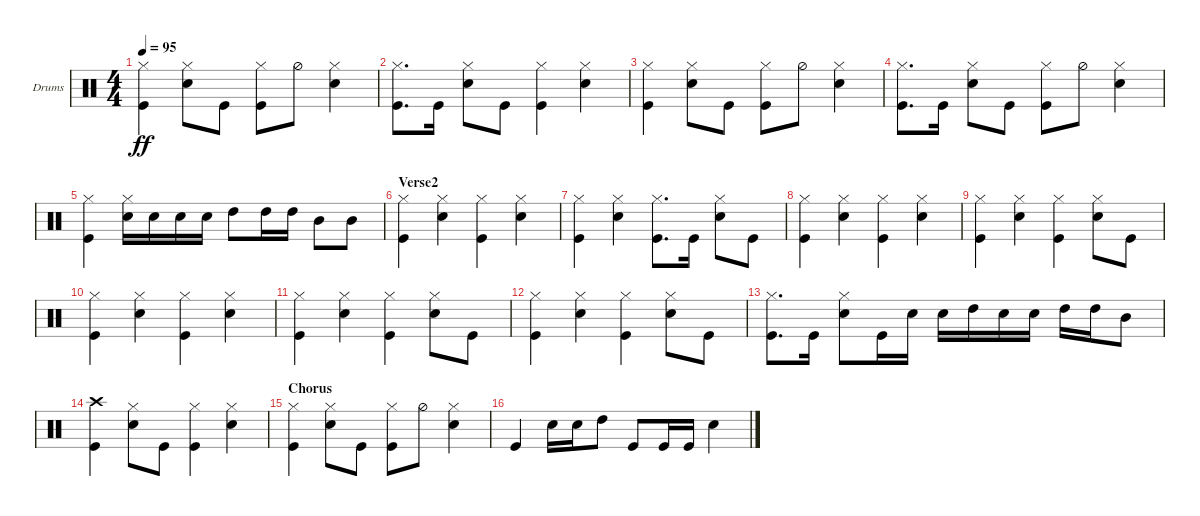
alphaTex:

\defaultSystemsLayout 4
\bracketExtendMode groupsimilarinstruments
\firstSystemTrackNameOrientation horizontal
\otherSystemsTrackNameOrientation horizontal
\track ("Drums" "Drums") {instrument percussion}
\staff {score}
\articulation defaults
\ts (4 4)
\tempo 95
\clef neutral
\ks c
("Hi-Hat (closed)" "Kick (hit)").4{dy ff} ("Hi-Hat (closed)" "Snare (hit) 2").8 "Kick (hit)".8 ("Kick (hit)" "Hi-Hat (closed)").8 "Hi-Hat (half)".8 ("Hi-Hat (closed)" "Snare (hit) 2").4 |
("Hi-Hat (closed)" "Kick (hit)").8{d} "Kick (hit)".16 ("Hi-Hat (closed)" "Snare (hit) 2").8 "Kick (hit)".8 ("Kick (hit)" "Hi-Hat (closed)").4 ("Hi-Hat (closed)" "Snare (hit) 2").4 |
("Hi-Hat (closed)" "Kick (hit)").4 ("Hi-Hat (closed)" "Snare (hit) 2").8 "Kick (hit)".8 ("Kick (hit)" "Hi-Hat (closed)").8 "Hi-Hat (half)".8 ("Hi-Hat (closed)" "Snare (hit) 2").4 |
("Hi-Hat (closed)" "Kick (hit)").8{d} "Kick (hit)".16 ("Hi-Hat (closed)" "Snare (hit) 2").8 "Kick (hit)".8 ("Kick (hit)" "Hi-Hat (closed)").8 "Hi-Hat (half)".8 ("Hi-Hat (closed)" "Snare (hit) 2").4 |
("Hi-Hat (closed)" "Kick (hit)").4 ("Hi-Hat (closed)" "Snare (hit) 2").16 "Snare (hit) 2".16 "Snare (hit) 2".16 "Snare (hit) 2".16 "High Tom (hit)".8 "High Tom (hit)".16 "High Tom (hit)".16 "Mid Tom (hit)".8 "Mid Tom (hit)".8 |
\section ("" "Verse2")
("Hi-Hat (closed)" "Kick (hit)").4 ("Hi-Hat (closed)" "Snare (hit) 2").4 ("Kick (hit)" "Hi-Hat (closed)").4 ("Hi-Hat (closed)" "Snare (hit) 2").4 |
("Hi-Hat (closed)" "Kick (hit)").4 ("Hi-Hat (closed)" "Snare (hit) 2").4 ("Kick (hit)" "Hi-Hat (closed)").8{d} "Kick (hit)".16 ("Hi-Hat (closed)" "Snare (hit) 2").8 "Kick (hit)".8 |
("Hi-Hat (closed)" "Kick (hit)").4 ("Hi-Hat (closed)" "Snare (hit) 2").4 ("Kick (hit)" "Hi-Hat (closed)").4 ("Hi-Hat (closed)" "Snare (hit) 2").4 |
("Hi-Hat (closed)" "Kick (hit)").4 ("Hi-Hat (closed)" "Snare (hit) 2").4 ("Kick (hit)" "Hi-Hat (closed)").4 ("Hi-Hat (closed)" "Snare (hit) 2").8 "Kick (hit)".8 |
("Hi-Hat (closed)" "Kick (hit)").4 ("Hi-Hat (closed)" "Snare (hit) 2").4 ("Kick (hit)" "Hi-Hat (closed)").4 ("Hi-Hat (closed)" "Snare (hit) 2").4 |
("Hi-Hat (closed)" "Kick (hit)").4 ("Hi-Hat (closed)" "Snare (hit) 2").4 ("Kick (hit)" "Hi-Hat (closed)").4 ("Hi-Hat (closed)" "Snare (hit) 2").8 "Kick (hit)".8 |
("Hi-Hat (closed)" "Kick (hit)").4 ("Hi-Hat (closed)" "Snare (hit) 2").4 ("Kick (hit)" "Hi-Hat (closed)").4 ("Hi-Hat (closed)" "Snare (hit) 2").8 "Kick (hit)".8 |
("Hi-Hat (closed)" "Kick (hit)").8{d} "Kick (hit)".16 ("Hi-Hat (closed)" "Snare (hit) 2").8 "Kick (hit)".16 "Snare (hit) 2".16 "Snare (hit) 2".16 "High Tom (hit)".16 "Snare (hit) 2".16 "Snare (hit) 2".16 "High Tom (hit)".16 "High Tom (hit)".16 "Mid Tom (hit)".8 |
("Kick (hit)" "Crash high (hit)").4 ("Hi-Hat (closed)" "Snare (hit) 2").8 "Kick (hit)".8 ("Kick (hit)" "Hi-Hat (closed)").4 ("Hi-Hat (closed)" "Snare (hit) 2").4 |
\section ("" "Chorus")
("Hi-Hat (closed)" "Kick (hit)").4 ("Hi-Hat (closed)" "Snare (hit) 2").8 "Kick (hit)".8 ("Kick (hit)" "Hi-Hat (closed)").8 "Hi-Hat (half)".8 ("Hi-Hat (closed)" "Snare (hit) 2").4 |
"Kick (hit)".4 "Snare (hit) 2".16 "Snare (hit) 2".16 "High Tom (hit)".8 "Kick (hit)".8 "Kick (hit)".16 "Kick (hit)".16 "Snare (hit) 2".4
